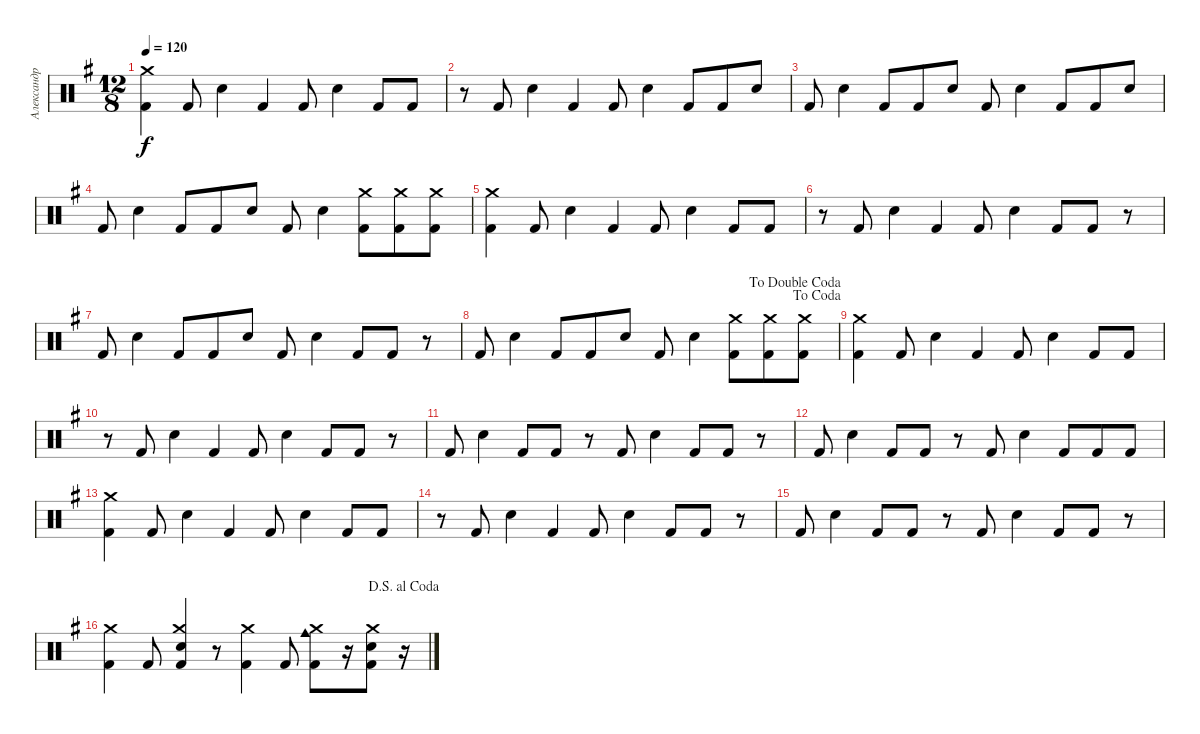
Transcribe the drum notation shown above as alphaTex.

\track ("Александр Манякин" "Александр ") {instrument percussion}
\staff {score}
\articulation defaults
\ts (12 8)
\tempo 120
\clef neutral
\ks g
("Kick (hit) 2" "Crash medium (hit)").4{dy f} "Kick (hit) 2".8 "Snare (hit) 2".4 "Kick (hit) 2".4 "Kick (hit) 2".8 "Snare (hit) 2".4 "Kick (hit) 2".8 "Kick (hit) 2".8 |
r.8 "Kick (hit) 2".8 "Snare (hit) 2".4 "Kick (hit) 2".4 "Kick (hit) 2".8 "Snare (hit) 2".4 "Kick (hit) 2".8 "Kick (hit) 2".8 "Snare (hit) 2".8 |
"Kick (hit) 2".8 "Snare (hit) 2".4 "Kick (hit) 2".8 "Kick (hit) 2".8 "Snare (hit) 2".8 "Kick (hit) 2".8 "Snare (hit) 2".4 "Kick (hit) 2".8 "Kick (hit) 2".8 "Snare (hit) 2".8 |
"Kick (hit) 2".8 "Snare (hit) 2".4 "Kick (hit) 2".8 "Kick (hit) 2".8 "Snare (hit) 2".8 "Kick (hit) 2".8 "Snare (hit) 2".4 ("Kick (hit) 2" "Crash medium (hit)").8 ("Kick (hit) 2" "Crash medium (hit)").8 ("Kick (hit) 2" "Crash medium (hit)").8 |
("Kick (hit) 2" "Crash medium (hit)").4 "Kick (hit) 2".8 "Snare (hit) 2".4 "Kick (hit) 2".4 "Kick (hit) 2".8 "Snare (hit) 2".4 "Kick (hit) 2".8 "Kick (hit) 2".8 |
r.8 "Kick (hit) 2".8 "Snare (hit) 2".4 "Kick (hit) 2".4 "Kick (hit) 2".8 "Snare (hit) 2".4 "Kick (hit) 2".8 "Kick (hit) 2".8 r.8 |
"Kick (hit) 2".8 "Snare (hit) 2".4 "Kick (hit) 2".8 "Kick (hit) 2".8 "Snare (hit) 2".8 "Kick (hit) 2".8 "Snare (hit) 2".4 "Kick (hit) 2".8 "Kick (hit) 2".8 r.8 |
\jump dacoda
\jump dadoublecoda "Kick (hit) 2".8 "Snare (hit) 2".4 "Kick (hit) 2".8 "Kick (hit) 2".8 "Snare (hit) 2".8 "Kick (hit) 2".8 "Snare (hit) 2".4
("Kick (hit) 2" "Crash medium (hit)").8 ("Kick (hit) 2" "Crash medium (hit)").8 ("Kick (hit) 2" "Crash medium (hit)").8 |
("Kick (hit) 2" "Crash medium (hit)").4 "Kick (hit) 2".8 "Snare (hit) 2".4 "Kick (hit) 2".4 "Kick (hit) 2".8 "Snare (hit) 2".4 "Kick (hit) 2".8 "Kick (hit) 2".8 |
r.8 "Kick (hit) 2".8 "Snare (hit) 2".4 "Kick (hit) 2".4 "Kick (hit) 2".8 "Snare (hit) 2".4 "Kick (hit) 2".8 "Kick (hit) 2".8 r.8 |
"Kick (hit) 2".8 "Snare (hit) 2".4 "Kick (hit) 2".8 "Kick (hit) 2".8 r.8 "Kick (hit) 2".8 "Snare (hit) 2".4 "Kick (hit) 2".8 "Kick (hit) 2".8 r.8 |
"Kick (hit) 2".8 "Snare (hit) 2".4 "Kick (hit) 2".8 "Kick (hit) 2".8 r.8 "Kick (hit) 2".8 "Snare (hit) 2".4 "Kick (hit) 2".8 "Kick (hit) 2".8 "Kick (hit) 2".8 |
("Kick (hit) 2" "Crash medium (hit)").4 "Kick (hit) 2".8 "Snare (hit) 2".4 "Kick (hit) 2".4 "Kick (hit) 2".8 "Snare (hit) 2".4 "Kick (hit) 2".8 "Kick (hit) 2".8 |
r.8 "Kick (hit) 2".8 "Snare (hit) 2".4 "Kick (hit) 2".4 "Kick (hit) 2".8 "Snare (hit) 2".4 "Kick (hit) 2".8 "Kick (hit) 2".8 r.8 |
"Kick (hit) 2".8 "Snare (hit) 2".4 "Kick (hit) 2".8 "Kick (hit) 2".8 r.8 "Kick (hit) 2".8 "Snare (hit) 2".4 "Kick (hit) 2".8 "Kick (hit) 2".8 r.8 |
\jump dalsegnoalcoda
("Kick (hit) 2" "Crash medium (hit)").4 "Kick (hit) 2".8 ("Kick (hit) 2" "Snare (hit) 2" "Crash medium (hit)").4 r.8 ("Kick (hit) 2" "Crash medium (hit)").4 "Kick (hit) 2".8 ("Kick (hit) 2" "Cowbell medium (hit)" "Crash medium (hit)").8 r.16 ("Kick (hit) 2" "Snare (hit) 2" "Crash medium (hit)").8 r.16
